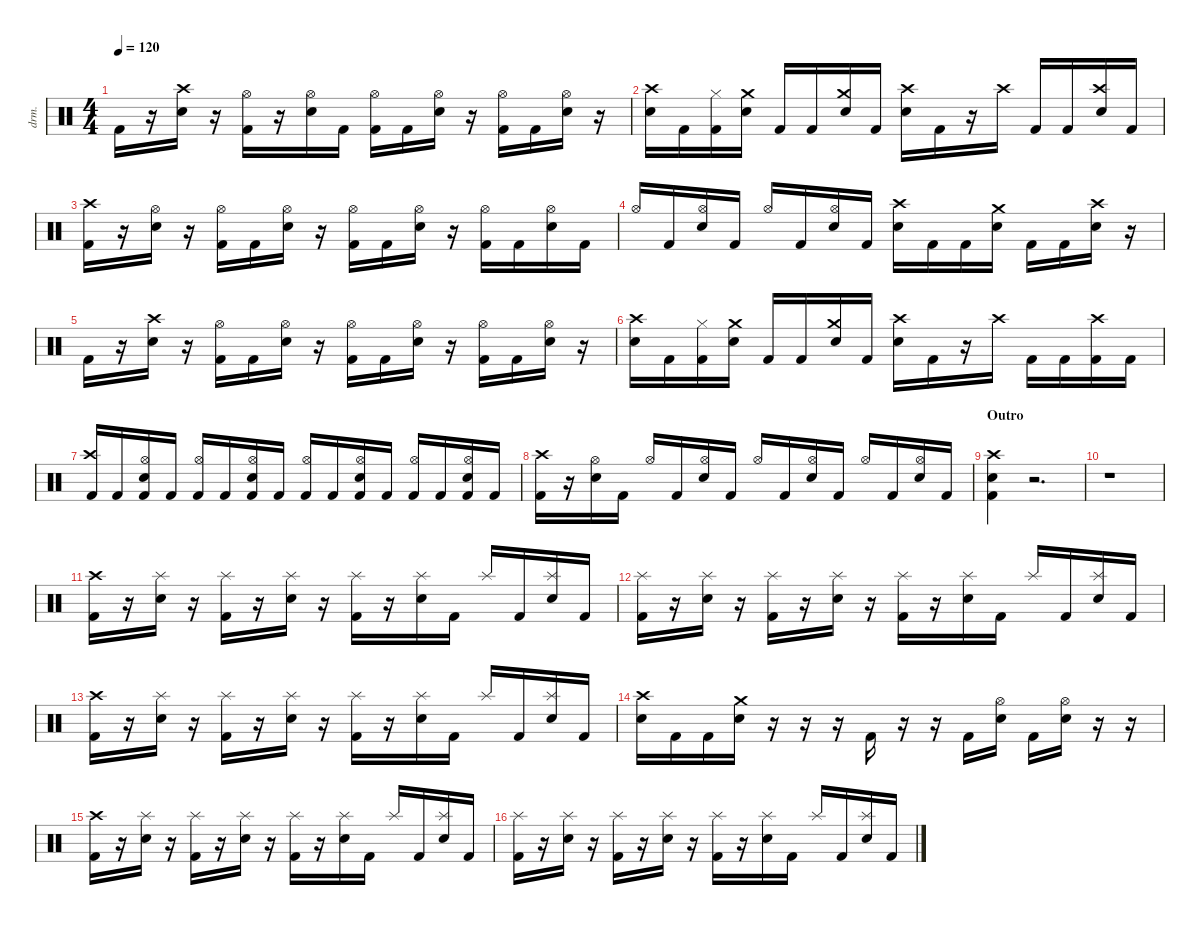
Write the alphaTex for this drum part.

\defaultSystemsLayout 4
\hideDynamics
\bracketExtendMode nobrackets
\track ("Drums" "drm.") {instrument percussion}
\staff {score}
\articulation defaults
\ts (4 4)
\tempo 120
\clef neutral
\ks c "Kick (hit) 2".16{dy f beam Down}
r.16{beam Down} ("Crash high (hit)" "Snare (hit) 2").16{dy fff beam Down} r.16{beam Down} ("Hi-Hat (open)" "Kick (hit) 2").16{beam Down} r.16{beam Down} ("Hi-Hat (open)" "Snare (hit) 2").16{beam Down} "Kick (hit) 2".16{dy f beam Down} ("Hi-Hat (open)" "Kick (hit) 2").16{dy fff beam Down} "Kick (hit) 2".16{dy f beam Down} ("Hi-Hat (open)" "Snare (hit) 2").16{dy fff beam Down} r.16{beam Down} ("Hi-Hat (open)" "Kick (hit) 2").16{beam Down} "Kick (hit) 2".16{dy f beam Down} ("Hi-Hat (open)" "Snare (hit) 2").16{dy fff beam Down} r.16{beam Down} |
("Crash high (hit)" "Snare (hit) 2").16{beam Down} "Kick (hit) 2".16{dy f beam Down} ("Hi-Hat (closed)" "Kick (hit) 2").16{dy fff beam Down} ("Crash medium (hit)" "Snare (hit) 2").16{beam Down} "Kick (hit) 2".16{dy f beam Up} "Kick (hit) 2".16{beam Up} ("Crash medium (hit)" "Snare (hit) 2").16{dy fff beam Up} "Kick (hit) 2".16{dy f beam Up} ("Crash high (hit)" "Snare (hit) 2").16{dy fff beam Down} "Kick (hit) 2".16{dy f beam Down} r.16{beam Down} "Crash high (hit)".16{dy fff beam Down} "Kick (hit) 2".16{dy f beam Up} "Kick (hit) 2".16{beam Up} ("Crash high (hit)" "Snare (hit) 2").16{dy fff beam Up} "Kick (hit) 2".16{dy f beam Up} |
("Crash high (hit)" "Kick (hit) 2").16{dy fff beam Down} r.16{beam Down} ("Hi-Hat (open)" "Snare (hit) 2").16{beam Down} r.16{beam Down} ("Hi-Hat (open)" "Kick (hit) 2").16{beam Down} "Kick (hit) 2".16{dy f beam Down} ("Hi-Hat (open)" "Snare (hit) 2").16{dy fff beam Down} r.16{beam Down} ("Hi-Hat (open)" "Kick (hit) 2").16{beam Down} "Kick (hit) 2".16{dy f beam Down} ("Hi-Hat (open)" "Snare (hit) 2").16{dy fff beam Down} r.16{beam Down} ("Hi-Hat (open)" "Kick (hit) 2").16{beam Down} "Kick (hit) 2".16{dy f beam Down} ("Hi-Hat (open)" "Snare (hit) 2").16{dy fff beam Down} "Kick (hit) 2".16{dy f beam Down} |
"Hi-Hat (open)".16{dy fff beam Up} "Kick (hit) 2".16{dy f beam Up} ("Hi-Hat (open)" "Snare (hit) 2").16{dy fff beam Up} "Kick (hit) 2".16{dy f beam Up} "Hi-Hat (open)".16{dy fff beam Up} "Kick (hit) 2".16{dy f beam Up} ("Hi-Hat (open)" "Snare (hit) 2").16{dy fff beam Up} "Kick (hit) 2".16{dy f beam Up} ("Crash high (hit)" "Snare (hit) 2").16{dy fff beam Down} "Kick (hit) 2".16{dy f beam Down} "Kick (hit) 2".16{beam Down} ("Crash medium (hit)" "Snare (hit) 2").16{dy fff beam Down} "Kick (hit) 2".16{dy f beam Down} "Kick (hit) 2".16{beam Down} ("Crash high (hit)" "Snare (hit) 2").16{dy fff beam Down} r.16{beam Down} |
"Kick (hit) 2".16{dy f beam Down} r.16{beam Down} ("Crash high (hit)" "Snare (hit) 2").16{dy fff beam Down} r.16{beam Down} ("Hi-Hat (open)" "Kick (hit) 2").16{beam Down} "Kick (hit) 2".16{dy f beam Down} ("Hi-Hat (open)" "Snare (hit) 2").16{dy fff beam Down} r.16{beam Down} ("Hi-Hat (open)" "Kick (hit) 2").16{beam Down} "Kick (hit) 2".16{dy f beam Down} ("Hi-Hat (open)" "Snare (hit) 2").16{dy fff beam Down} r.16{beam Down} ("Hi-Hat (open)" "Kick (hit) 2").16{beam Down} "Kick (hit) 2".16{dy f beam Down} ("Hi-Hat (open)" "Snare (hit) 2").16{dy fff beam Down} r.16{beam Down} |
("Crash high (hit)" "Snare (hit) 2").16{beam Down} "Kick (hit) 2".16{dy f beam Down} ("Hi-Hat (closed)" "Kick (hit) 2").16{dy fff beam Down} ("Crash medium (hit)" "Snare (hit) 2").16{beam Down} "Kick (hit) 2".16{dy f beam Up} "Kick (hit) 2".16{beam Up} ("Crash medium (hit)" "Snare (hit) 2").16{dy fff beam Up} "Kick (hit) 2".16{dy f beam Up} ("Crash high (hit)" "Snare (hit) 2").16{dy fff beam Down} "Kick (hit) 2".16{dy f beam Down} r.16{beam Down} "Crash high (hit)".16{beam Down} "Kick (hit) 2".16{beam Down} "Kick (hit) 2".16{beam Down} ("Crash high (hit)" "Kick (hit) 2").16{dy fff beam Down} "Kick (hit) 2".16{dy f beam Down} |
("Crash high (hit)" "Kick (hit) 2").16{dy fff beam Up} "Kick (hit) 2".16{dy f beam Up} ("Hi-Hat (open)" "Snare (hit) 2" "Kick (hit) 2").16{dy fff beam Up} "Kick (hit) 2".16{dy f beam Up} ("Hi-Hat (open)" "Kick (hit) 2").16{dy fff beam Up} "Kick (hit) 2".16{dy f beam Up} ("Hi-Hat (open)" "Snare (hit) 2" "Kick (hit) 2").16{dy fff beam Up} "Kick (hit) 2".16{dy f beam Up} ("Hi-Hat (open)" "Kick (hit) 2").16{dy fff beam Up} "Kick (hit) 2".16{dy f beam Up} ("Hi-Hat (open)" "Snare (hit) 2" "Kick (hit) 2").16{dy fff beam Up} "Kick (hit) 2".16{dy f beam Up} ("Hi-Hat (open)" "Kick (hit) 2").16{dy fff beam Up} "Kick (hit) 2".16{dy f beam Up} ("Hi-Hat (open)" "Snare (hit) 2" "Kick (hit) 2").16{dy fff beam Up} "Kick (hit) 2".16{dy f beam Up} |
("Crash high (hit)" "Kick (hit) 2").16{dy fff beam Down} r.16{beam Down} ("Hi-Hat (open)" "Snare (hit) 2").16{beam Down} "Kick (hit) 2".16{dy f beam Down} "Hi-Hat (open)".16{dy fff beam Up} "Kick (hit) 2".16{dy f beam Up} ("Hi-Hat (open)" "Snare (hit) 2").16{dy fff beam Up} "Kick (hit) 2".16{dy f beam Up} "Hi-Hat (open)".16{dy fff beam Up} "Kick (hit) 2".16{dy f beam Up} ("Hi-Hat (open)" "Snare (hit) 2").16{dy fff beam Up} "Kick (hit) 2".16{dy f beam Up} "Hi-Hat (open)".16{dy fff beam Up} "Kick (hit) 2".16{dy f beam Up} ("Hi-Hat (open)" "Snare (hit) 2").16{dy fff beam Up} "Kick (hit) 2".16{dy f beam Up} |
\section ("" "Outro")
("Crash high (hit)" "Snare (hit) 2" "Kick (hit) 2").4{dy fff beam Down} r.2{d beam Down} |
r.1{beam Down} |
("Crash high (hit)" "Kick (hit) 2").16{beam Down} r.16{beam Down} ("Splash (hit)" "Snare (hit) 2").16{beam Down} r.16{beam Down} ("Splash (hit)" "Kick (hit) 2").16{beam Down} r.16{beam Down} ("Splash (hit)" "Snare (hit) 2").16{beam Down} r.16{beam Down} ("Splash (hit)" "Kick (hit) 2").16{beam Down} r.16{beam Down} ("Splash (hit)" "Snare (hit) 2").16{beam Down} "Kick (hit) 2".16{dy f beam Down} "Splash (hit)".16{dy fff beam Up} "Kick (hit) 2".16{dy f beam Up} ("Splash (hit)" "Snare (hit) 2").16{dy fff beam Up} "Kick (hit) 2".16{dy f beam Up} |
("Splash (hit)" "Kick (hit) 2").16{dy fff beam Down} r.16{beam Down} ("Splash (hit)" "Snare (hit) 2").16{beam Down} r.16{beam Down} ("Splash (hit)" "Kick (hit) 2").16{beam Down} r.16{beam Down} ("Splash (hit)" "Snare (hit) 2").16{beam Down} r.16{beam Down} ("Splash (hit)" "Kick (hit) 2").16{beam Down} r.16{beam Down} ("Splash (hit)" "Snare (hit) 2").16{beam Down} "Kick (hit) 2".16{dy f beam Down} "Splash (hit)".16{dy fff beam Up} "Kick (hit) 2".16{dy f beam Up} ("Splash (hit)" "Snare (hit) 2").16{dy fff beam Up} "Kick (hit) 2".16{dy f beam Up} |
("Crash high (hit)" "Kick (hit) 2").16{dy fff beam Down} r.16{beam Down} ("Splash (hit)" "Snare (hit) 2").16{beam Down} r.16{beam Down} ("Splash (hit)" "Kick (hit) 2").16{beam Down} r.16{beam Down} ("Splash (hit)" "Snare (hit) 2").16{beam Down} r.16{beam Down} ("Splash (hit)" "Kick (hit) 2").16{beam Down} r.16{beam Down} ("Splash (hit)" "Snare (hit) 2").16{beam Down} "Kick (hit) 2".16{dy f beam Down} "Splash (hit)".16{dy fff beam Up} "Kick (hit) 2".16{dy f beam Up} ("Splash (hit)" "Snare (hit) 2").16{dy fff beam Up} "Kick (hit) 2".16{dy f beam Up} |
("Crash high (hit)" "Snare (hit) 2").16{dy fff beam Down} "Kick (hit) 2".16{dy f beam Down} "Kick (hit) 2".16{beam Down} ("Crash medium (hit)" "Snare (hit) 2").16{dy fff beam Down} r.16{beam Down} r.16{beam Down} r.16{beam Down} "Kick (hit) 2".16{dy f beam Up} r.16{beam Down} r.16{beam Down} "Kick (hit) 2".16{beam Down} ("Hi-Hat (open)" "Snare (hit) 2").16{dy fff beam Down} "Kick (hit) 2".16{dy f beam Down} ("Hi-Hat (open)" "Snare (hit) 2").16{dy fff beam Down} r.16{beam Down} r.16{beam Down} |
("Crash high (hit)" "Kick (hit) 2").16{beam Down} r.16{beam Down} ("Splash (hit)" "Snare (hit) 2").16{beam Down} r.16{beam Down} ("Splash (hit)" "Kick (hit) 2").16{beam Down} r.16{beam Down} ("Splash (hit)" "Snare (hit) 2").16{beam Down} r.16{beam Down} ("Splash (hit)" "Kick (hit) 2").16{beam Down} r.16{beam Down} ("Splash (hit)" "Snare (hit) 2").16{beam Down} "Kick (hit) 2".16{dy f beam Down} "Splash (hit)".16{dy fff beam Up} "Kick (hit) 2".16{dy f beam Up} ("Splash (hit)" "Snare (hit) 2").16{dy fff beam Up} "Kick (hit) 2".16{dy f beam Up} |
("Splash (hit)" "Kick (hit) 2").16{dy fff beam Down} r.16{beam Down} ("Splash (hit)" "Snare (hit) 2").16{beam Down} r.16{beam Down} ("Splash (hit)" "Kick (hit) 2").16{beam Down} r.16{beam Down} ("Splash (hit)" "Snare (hit) 2").16{beam Down} r.16{beam Down} ("Splash (hit)" "Kick (hit) 2").16{beam Down} r.16{beam Down} ("Splash (hit)" "Snare (hit) 2").16{beam Down} "Kick (hit) 2".16{dy f beam Down} "Splash (hit)".16{dy fff beam Up} "Kick (hit) 2".16{dy f beam Up} ("Splash (hit)" "Snare (hit) 2").16{dy fff beam Up} "Kick (hit) 2".16{dy f beam Up}
